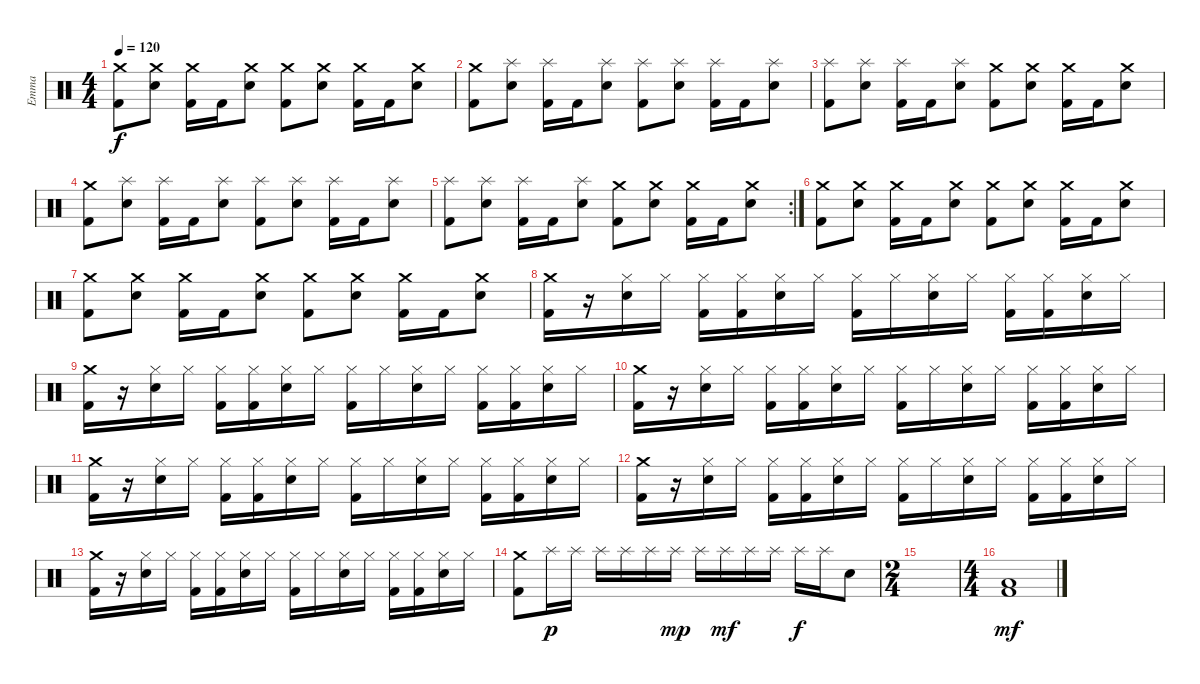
\track ("Emma" "Emma") {instrument percussion}
\staff {score}
\articulation defaults
\ts (4 4)
\tempo 120
\clef neutral
\ks c
("Crash medium (hit)" "Kick (hit) 2").8{dy f} ("Crash medium (hit)" "Electric Snare (hit)").8 ("Crash medium (hit)" "Kick (hit) 2").16 "Kick (hit) 2".16 ("Crash medium (hit)" "Electric Snare (hit)").8 ("Crash medium (hit)" "Kick (hit) 2").8 ("Crash medium (hit)" "Electric Snare (hit)").8 ("Crash medium (hit)" "Kick (hit) 2").16 "Kick (hit) 2".16 ("Crash medium (hit)" "Electric Snare (hit)").8 |
("Crash medium (hit)" "Kick (hit) 2").8 ("Splash (hit)" "Electric Snare (hit)").8 ("Splash (hit)" "Kick (hit) 2").16 "Kick (hit) 2".16 ("Splash (hit)" "Electric Snare (hit)").8 ("Splash (hit)" "Kick (hit) 2").8 ("Splash (hit)" "Electric Snare (hit)").8 ("Splash (hit)" "Kick (hit) 2").16 "Kick (hit) 2".16 ("Splash (hit)" "Electric Snare (hit)").8 |
("Splash (hit)" "Kick (hit) 2").8 ("Splash (hit)" "Electric Snare (hit)").8 ("Splash (hit)" "Kick (hit) 2").16 "Kick (hit) 2".16 ("Splash (hit)" "Electric Snare (hit)").8 ("Crash medium (hit)" "Kick (hit) 2").8 ("Crash medium (hit)" "Electric Snare (hit)").8 ("Crash medium (hit)" "Kick (hit) 2").16 "Kick (hit) 2".16 ("Crash medium (hit)" "Electric Snare (hit)").8 |
("Crash medium (hit)" "Kick (hit) 2").8 ("Splash (hit)" "Electric Snare (hit)").8 ("Splash (hit)" "Kick (hit) 2").16 "Kick (hit) 2".16 ("Splash (hit)" "Electric Snare (hit)").8 ("Splash (hit)" "Kick (hit) 2").8 ("Splash (hit)" "Electric Snare (hit)").8 ("Splash (hit)" "Kick (hit) 2").16 "Kick (hit) 2".16 ("Splash (hit)" "Electric Snare (hit)").8 |
\rc 2
("Splash (hit)" "Kick (hit) 2").8 ("Splash (hit)" "Electric Snare (hit)").8 ("Splash (hit)" "Kick (hit) 2").16 "Kick (hit) 2".16 ("Splash (hit)" "Electric Snare (hit)").8 ("Crash medium (hit)" "Kick (hit) 2").8 ("Crash medium (hit)" "Electric Snare (hit)").8 ("Crash medium (hit)" "Kick (hit) 2").16 "Kick (hit) 2".16 ("Crash medium (hit)" "Electric Snare (hit)").8 |
("Crash medium (hit)" "Kick (hit) 2").8 ("Crash medium (hit)" "Electric Snare (hit)").8 ("Crash medium (hit)" "Kick (hit) 2").16 "Kick (hit) 2".16 ("Crash medium (hit)" "Electric Snare (hit)").8 ("Crash medium (hit)" "Kick (hit) 2").8 ("Crash medium (hit)" "Electric Snare (hit)").8 ("Crash medium (hit)" "Kick (hit) 2").16 "Kick (hit) 2".16 ("Crash medium (hit)" "Electric Snare (hit)").8 |
("Crash medium (hit)" "Kick (hit) 2").8 ("Crash medium (hit)" "Electric Snare (hit)").8 ("Crash medium (hit)" "Kick (hit) 2").16 "Kick (hit) 2".16 ("Crash medium (hit)" "Electric Snare (hit)").8 ("Crash medium (hit)" "Kick (hit) 2").8 ("Crash medium (hit)" "Electric Snare (hit)").8 ("Crash medium (hit)" "Kick (hit) 2").16 "Kick (hit) 2".16 ("Crash medium (hit)" "Electric Snare (hit)").8 |
("Crash medium (hit)" "Kick (hit) 2").16 r.16 ("Hi-Hat (closed)" "Electric Snare (hit)").16 "Hi-Hat (closed)".16 ("Hi-Hat (closed)" "Kick (hit) 2").16 ("Hi-Hat (closed)" "Kick (hit) 2").16 ("Hi-Hat (closed)" "Electric Snare (hit)").16 "Hi-Hat (closed)".16 ("Hi-Hat (closed)" "Kick (hit) 2").16 "Hi-Hat (closed)".16 ("Hi-Hat (closed)" "Electric Snare (hit)").16 "Hi-Hat (closed)".16 ("Hi-Hat (closed)" "Kick (hit) 2").16 ("Hi-Hat (closed)" "Kick (hit) 2").16 ("Hi-Hat (closed)" "Electric Snare (hit)").16 "Hi-Hat (closed)".16 |
("Crash medium (hit)" "Kick (hit) 2").16 r.16 ("Hi-Hat (closed)" "Electric Snare (hit)").16 "Hi-Hat (closed)".16 ("Hi-Hat (closed)" "Kick (hit) 2").16 ("Hi-Hat (closed)" "Kick (hit) 2").16 ("Hi-Hat (closed)" "Electric Snare (hit)").16 "Hi-Hat (closed)".16 ("Hi-Hat (closed)" "Kick (hit) 2").16 "Hi-Hat (closed)".16 ("Hi-Hat (closed)" "Electric Snare (hit)").16 "Hi-Hat (closed)".16 ("Hi-Hat (closed)" "Kick (hit) 2").16 ("Hi-Hat (closed)" "Kick (hit) 2").16 ("Hi-Hat (closed)" "Electric Snare (hit)").16 "Hi-Hat (closed)".16 |
("Crash medium (hit)" "Kick (hit) 2").16 r.16 ("Hi-Hat (closed)" "Electric Snare (hit)").16 "Hi-Hat (closed)".16 ("Hi-Hat (closed)" "Kick (hit) 2").16 ("Hi-Hat (closed)" "Kick (hit) 2").16 ("Hi-Hat (closed)" "Electric Snare (hit)").16 "Hi-Hat (closed)".16 ("Hi-Hat (closed)" "Kick (hit) 2").16 "Hi-Hat (closed)".16 ("Hi-Hat (closed)" "Electric Snare (hit)").16 "Hi-Hat (closed)".16 ("Hi-Hat (closed)" "Kick (hit) 2").16 ("Hi-Hat (closed)" "Kick (hit) 2").16 ("Hi-Hat (closed)" "Electric Snare (hit)").16 "Hi-Hat (closed)".16 |
("Crash medium (hit)" "Kick (hit) 2").16 r.16 ("Hi-Hat (closed)" "Electric Snare (hit)").16 "Hi-Hat (closed)".16 ("Hi-Hat (closed)" "Kick (hit) 2").16 ("Hi-Hat (closed)" "Kick (hit) 2").16 ("Hi-Hat (closed)" "Electric Snare (hit)").16 "Hi-Hat (closed)".16 ("Hi-Hat (closed)" "Kick (hit) 2").16 "Hi-Hat (closed)".16 ("Hi-Hat (closed)" "Electric Snare (hit)").16 "Hi-Hat (closed)".16 ("Hi-Hat (closed)" "Kick (hit) 2").16 ("Hi-Hat (closed)" "Kick (hit) 2").16 ("Hi-Hat (closed)" "Electric Snare (hit)").16 "Hi-Hat (closed)".16 |
("Crash medium (hit)" "Kick (hit) 2").16 r.16 ("Hi-Hat (closed)" "Electric Snare (hit)").16 "Hi-Hat (closed)".16 ("Hi-Hat (closed)" "Kick (hit) 2").16 ("Hi-Hat (closed)" "Kick (hit) 2").16 ("Hi-Hat (closed)" "Electric Snare (hit)").16 "Hi-Hat (closed)".16 ("Hi-Hat (closed)" "Kick (hit) 2").16 "Hi-Hat (closed)".16 ("Hi-Hat (closed)" "Electric Snare (hit)").16 "Hi-Hat (closed)".16 ("Hi-Hat (closed)" "Kick (hit) 2").16 ("Hi-Hat (closed)" "Kick (hit) 2").16 ("Hi-Hat (closed)" "Electric Snare (hit)").16 "Hi-Hat (closed)".16 |
("Crash medium (hit)" "Kick (hit) 2").16 r.16 ("Hi-Hat (closed)" "Electric Snare (hit)").16 "Hi-Hat (closed)".16 ("Hi-Hat (closed)" "Kick (hit) 2").16 ("Hi-Hat (closed)" "Kick (hit) 2").16 ("Hi-Hat (closed)" "Electric Snare (hit)").16 "Hi-Hat (closed)".16 ("Hi-Hat (closed)" "Kick (hit) 2").16 "Hi-Hat (closed)".16 ("Hi-Hat (closed)" "Electric Snare (hit)").16 "Hi-Hat (closed)".16 ("Hi-Hat (closed)" "Kick (hit) 2").16 ("Hi-Hat (closed)" "Kick (hit) 2").16 ("Hi-Hat (closed)" "Electric Snare (hit)").16 "Hi-Hat (closed)".16 |
("Crash medium (hit)" "Kick (hit) 2").8 "Splash (hit)".16{dy p} "Splash (hit)".16 "Splash (hit)".16 "Splash (hit)".16 "Splash (hit)".16 "Splash (hit)".16{dy mp} "Splash (hit)".16 "Splash (hit)".16{dy mf} "Splash (hit)".16 "Splash (hit)".16 "Splash (hit)".16{dy f} "Splash (hit)".16 "Electric Snare (hit)".8 |
\ts (2 4)
|
\ts (4 4)
("Low Floor Tom (hit)" "Kick (hit) 2").1{dy mf}
